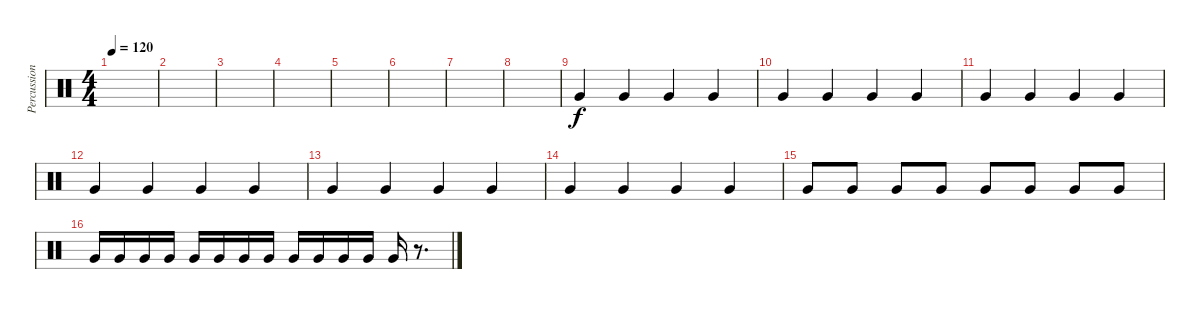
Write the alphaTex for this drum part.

\track ("Percussion" "Percussion") {instrument percussion}
\staff {score}
\articulation defaults
\ts (4 4)
\tempo 120
\clef neutral
\ks c
|
|
|
|
|
|
|
|
"Very Low Tom (hit)".4 "Very Low Tom (hit)".4 "Very Low Tom (hit)".4 "Very Low Tom (hit)".4 |
"Very Low Tom (hit)".4 "Very Low Tom (hit)".4 "Very Low Tom (hit)".4 "Very Low Tom (hit)".4 |
"Very Low Tom (hit)".4 "Very Low Tom (hit)".4 "Very Low Tom (hit)".4 "Very Low Tom (hit)".4 |
"Very Low Tom (hit)".4 "Very Low Tom (hit)".4 "Very Low Tom (hit)".4 "Very Low Tom (hit)".4 |
"Very Low Tom (hit)".4 "Very Low Tom (hit)".4 "Very Low Tom (hit)".4 "Very Low Tom (hit)".4 |
"Very Low Tom (hit)".4 "Very Low Tom (hit)".4 "Very Low Tom (hit)".4 "Very Low Tom (hit)".4 |
"Very Low Tom (hit)".8 "Very Low Tom (hit)".8 "Very Low Tom (hit)".8 "Very Low Tom (hit)".8 "Very Low Tom (hit)".8 "Very Low Tom (hit)".8 "Very Low Tom (hit)".8 "Very Low Tom (hit)".8 |
"Very Low Tom (hit)".16 "Very Low Tom (hit)".16 "Very Low Tom (hit)".16 "Very Low Tom (hit)".16 "Very Low Tom (hit)".16 "Very Low Tom (hit)".16 "Very Low Tom (hit)".16 "Very Low Tom (hit)".16 "Very Low Tom (hit)".16 "Very Low Tom (hit)".16 "Very Low Tom (hit)".16 "Very Low Tom (hit)".16 "Very Low Tom (hit)".16 r.8{d}
